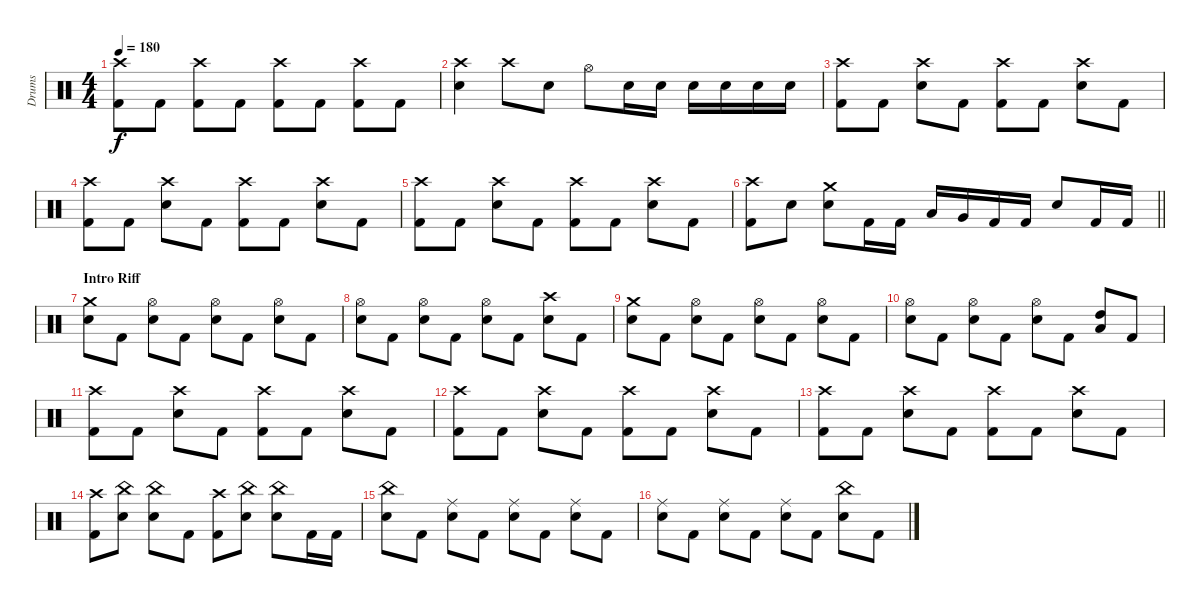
\track ("Drums" "Drums") {instrument percussion}
\staff {score}
\articulation defaults
\ts (4 4)
\tempo 180
\clef neutral
\ks c
("Crash high (hit)" "Kick (hit) 2").8{dy f} "Kick (hit) 2".8 ("Crash high (hit)" "Kick (hit) 2").8 "Kick (hit) 2".8 ("Crash high (hit)" "Kick (hit) 2").8 "Kick (hit) 2".8 ("Crash high (hit)" "Kick (hit) 2").8 "Kick (hit) 2".8 |
("Crash high (hit)" "Electric Snare (hit)").4 "Crash high (hit)".8 "Electric Snare (hit)".8 "Hi-Hat (open)".8 "Electric Snare (hit)".16 "Electric Snare (hit)".16 "Electric Snare (hit)".16 "Electric Snare (hit)".16 "Electric Snare (hit)".16 "Electric Snare (hit)".16 |
("Crash high (hit)" "Kick (hit) 2").8 "Kick (hit) 2".8 ("Crash high (hit)" "Electric Snare (hit)").8 "Kick (hit) 2".8 ("Crash high (hit)" "Kick (hit) 2").8 "Kick (hit) 2".8 ("Crash high (hit)" "Electric Snare (hit)").8 "Kick (hit) 2".8 |
("Crash high (hit)" "Kick (hit) 2").8 "Kick (hit) 2".8 ("Crash high (hit)" "Electric Snare (hit)").8 "Kick (hit) 2".8 ("Crash high (hit)" "Kick (hit) 2").8 "Kick (hit) 2".8 ("Crash high (hit)" "Electric Snare (hit)").8 "Kick (hit) 2".8 |
("Crash high (hit)" "Kick (hit) 2").8 "Kick (hit) 2".8 ("Crash high (hit)" "Electric Snare (hit)").8 "Kick (hit) 2".8 ("Crash high (hit)" "Kick (hit) 2").8 "Kick (hit) 2".8 ("Crash high (hit)" "Electric Snare (hit)").8 "Kick (hit) 2".8 |
\barLineRight lightlight
("Crash high (hit)" "Kick (hit) 2").8 "Electric Snare (hit)".8 ("Crash medium (hit)" "Electric Snare (hit)").8 "Kick (hit) 2".16 "Kick (hit) 2".16 "Low Tom (hit)".16 "Very Low Tom (hit)".16 "Kick (hit) 2".16 "Kick (hit) 2".16 "Electric Snare (hit)".8 "Kick (hit) 2".16 "Kick (hit) 2".16 |
\section ("" "Intro Riff")
("Crash medium (hit)" "Electric Snare (hit)").8 "Kick (hit) 2".8 ("Hi-Hat (open)" "Electric Snare (hit)").8 "Kick (hit) 2".8 ("Hi-Hat (open)" "Electric Snare (hit)").8 "Kick (hit) 2".8 ("Hi-Hat (open)" "Electric Snare (hit)").8 "Kick (hit) 2".8 |
("Hi-Hat (open)" "Electric Snare (hit)").8 "Kick (hit) 2".8 ("Hi-Hat (open)" "Electric Snare (hit)").8 "Kick (hit) 2".8 ("Hi-Hat (open)" "Electric Snare (hit)").8 "Kick (hit) 2".8 ("Crash high (hit)" "Electric Snare (hit)").8 "Kick (hit) 2".8 |
("Crash medium (hit)" "Electric Snare (hit)").8 "Kick (hit) 2".8 ("Hi-Hat (open)" "Electric Snare (hit)").8 "Kick (hit) 2".8 ("Hi-Hat (open)" "Electric Snare (hit)").8 "Kick (hit) 2".8 ("Hi-Hat (open)" "Electric Snare (hit)").8 "Kick (hit) 2".8 |
("Hi-Hat (open)" "Electric Snare (hit)").8 "Kick (hit) 2".8 ("Hi-Hat (open)" "Electric Snare (hit)").8 "Kick (hit) 2".8 ("Hi-Hat (open)" "Electric Snare (hit)").8 "Kick (hit) 2".8 ("Low Tom (hit)" "High Tom (hit)").8 "Kick (hit) 2".8 |
("Crash high (hit)" "Kick (hit) 2").8 "Kick (hit) 2".8 ("Crash high (hit)" "Electric Snare (hit)").8 "Kick (hit) 2".8 ("Crash high (hit)" "Kick (hit) 2").8 "Kick (hit) 2".8 ("Crash high (hit)" "Electric Snare (hit)").8 "Kick (hit) 2".8 |
("Crash high (hit)" "Kick (hit) 2").8 "Kick (hit) 2".8 ("Crash high (hit)" "Electric Snare (hit)").8 "Kick (hit) 2".8 ("Crash high (hit)" "Kick (hit) 2").8 "Kick (hit) 2".8 ("Crash high (hit)" "Electric Snare (hit)").8 "Kick (hit) 2".8 |
("Crash high (hit)" "Kick (hit) 2").8 "Kick (hit) 2".8 ("Crash high (hit)" "Electric Snare (hit)").8 "Kick (hit) 2".8 ("Crash high (hit)" "Kick (hit) 2").8 "Kick (hit) 2".8 ("Crash high (hit)" "Electric Snare (hit)").8 "Kick (hit) 2".8 |
("Crash high (hit)" "Kick (hit) 2").8 ("China (hit)" "Electric Snare (hit)").8 ("China (hit)" "Electric Snare (hit)").8 "Kick (hit) 2".8 ("Crash high (hit)" "Kick (hit) 2").8 ("China (hit)" "Electric Snare (hit)").8 ("China (hit)" "Electric Snare (hit)").8 "Kick (hit) 2".16 "Kick (hit) 2".16 |
("China (hit)" "Electric Snare (hit)").8 "Kick (hit) 2".8 ("Ride (middle)" "Electric Snare (hit)").8 "Kick (hit) 2".8 ("Ride (middle)" "Electric Snare (hit)").8 "Kick (hit) 2".8 ("Ride (middle)" "Electric Snare (hit)").8 "Kick (hit) 2".8 |
("Ride (middle)" "Electric Snare (hit)").8 "Kick (hit) 2".8 ("Ride (middle)" "Electric Snare (hit)").8 "Kick (hit) 2".8 ("Ride (middle)" "Electric Snare (hit)").8 "Kick (hit) 2".8 ("China (hit)" "Electric Snare (hit)").8 "Kick (hit) 2".8
